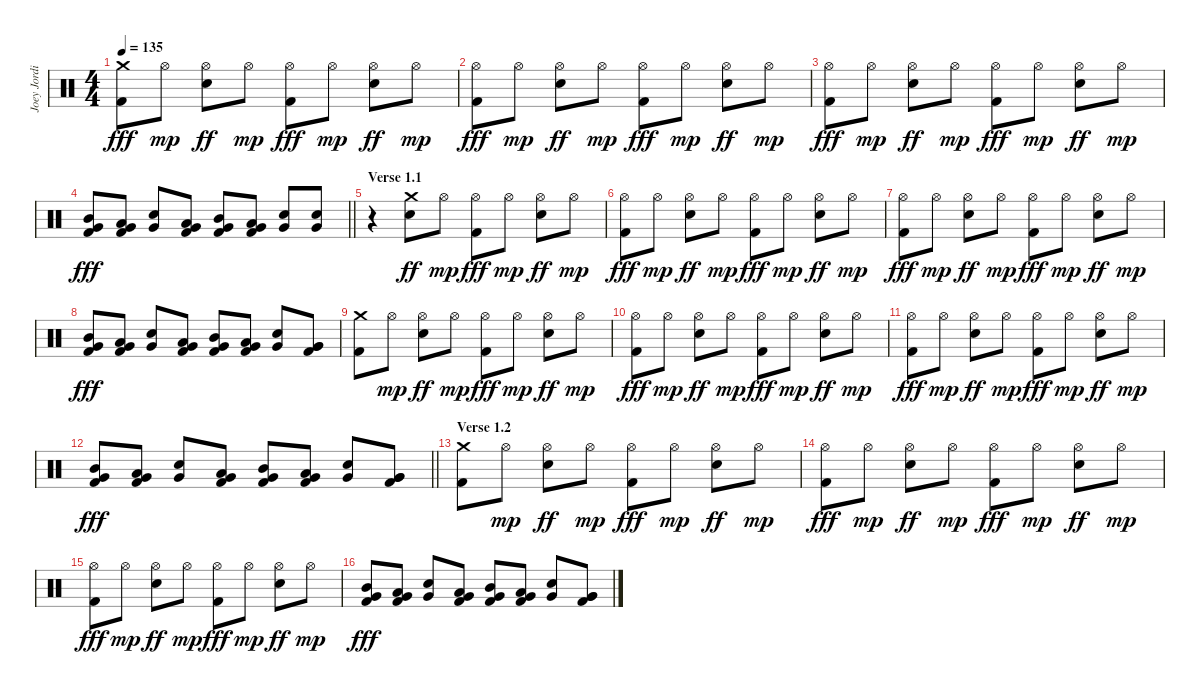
\track ("Joey Jordison" "Joey Jordi") {instrument percussion}
\staff {score}
\articulation defaults
\ts (4 4)
\tempo 135
\clef neutral
\ks c
("Crash medium (hit)" "Kick (hit) 2").8{dy fff} "Hi-Hat (open)".8{dy mp} ("Hi-Hat (open)" "Electric Snare (hit)").8{dy ff} "Hi-Hat (open)".8{dy mp} ("Hi-Hat (open)" "Kick (hit) 2").8{dy fff} "Hi-Hat (open)".8{dy mp} ("Hi-Hat (open)" "Electric Snare (hit)").8{dy ff} "Hi-Hat (open)".8{dy mp} |
("Hi-Hat (open)" "Kick (hit) 2").8{dy fff} "Hi-Hat (open)".8{dy mp} ("Hi-Hat (open)" "Electric Snare (hit)").8{dy ff} "Hi-Hat (open)".8{dy mp} ("Hi-Hat (open)" "Kick (hit) 2").8{dy fff} "Hi-Hat (open)".8{dy mp} ("Hi-Hat (open)" "Electric Snare (hit)").8{dy ff} "Hi-Hat (open)".8{dy mp} |
("Hi-Hat (open)" "Kick (hit) 2").8{dy fff} "Hi-Hat (open)".8{dy mp} ("Hi-Hat (open)" "Electric Snare (hit)").8{dy ff} "Hi-Hat (open)".8{dy mp} ("Hi-Hat (open)" "Kick (hit) 2").8{dy fff} "Hi-Hat (open)".8{dy mp} ("Hi-Hat (open)" "Electric Snare (hit)").8{dy ff} "Hi-Hat (open)".8{dy mp} |
\barLineRight lightlight
("Mid Tom (hit)" "Very Low Tom (hit)" "Kick (hit) 2").8{dy fff} ("Low Tom (hit)" "Very Low Tom (hit)" "Kick (hit) 2").8 ("Electric Snare (hit)" "Very Low Tom (hit)").8 ("Low Tom (hit)" "Very Low Tom (hit)" "Kick (hit) 2").8 ("Mid Tom (hit)" "Very Low Tom (hit)" "Kick (hit) 2").8 ("Low Tom (hit)" "Very Low Tom (hit)" "Kick (hit) 2").8 ("Electric Snare (hit)" "Very Low Tom (hit)").8 ("Electric Snare (hit)" "Very Low Tom (hit)").8 |
\section ("" "Verse 1.1")
r.4 ("Crash medium (hit)" "Electric Snare (hit)").8{dy ff} "Hi-Hat (open)".8{dy mp} ("Hi-Hat (open)" "Kick (hit) 2").8{dy fff} "Hi-Hat (open)".8{dy mp} ("Hi-Hat (open)" "Electric Snare (hit)").8{dy ff} "Hi-Hat (open)".8{dy mp} |
("Hi-Hat (open)" "Kick (hit) 2").8{dy fff} "Hi-Hat (open)".8{dy mp} ("Hi-Hat (open)" "Electric Snare (hit)").8{dy ff} "Hi-Hat (open)".8{dy mp} ("Hi-Hat (open)" "Kick (hit) 2").8{dy fff} "Hi-Hat (open)".8{dy mp} ("Hi-Hat (open)" "Electric Snare (hit)").8{dy ff} "Hi-Hat (open)".8{dy mp} |
("Hi-Hat (open)" "Kick (hit) 2").8{dy fff} "Hi-Hat (open)".8{dy mp} ("Hi-Hat (open)" "Electric Snare (hit)").8{dy ff} "Hi-Hat (open)".8{dy mp} ("Hi-Hat (open)" "Kick (hit) 2").8{dy fff} "Hi-Hat (open)".8{dy mp} ("Hi-Hat (open)" "Electric Snare (hit)").8{dy ff} "Hi-Hat (open)".8{dy mp} |
("Mid Tom (hit)" "Very Low Tom (hit)" "Kick (hit) 2").8{dy fff} ("Low Tom (hit)" "Very Low Tom (hit)" "Kick (hit) 2").8 ("Electric Snare (hit)" "Very Low Tom (hit)").8 ("Low Tom (hit)" "Very Low Tom (hit)" "Kick (hit) 2").8 ("Mid Tom (hit)" "Very Low Tom (hit)" "Kick (hit) 2").8 ("Low Tom (hit)" "Very Low Tom (hit)" "Kick (hit) 2").8 ("Electric Snare (hit)" "Very Low Tom (hit)").8 ("Very Low Tom (hit)" "Very Low Tom (hit)" "Kick (hit) 2").8 |
("Crash medium (hit)" "Kick (hit) 2").8 "Hi-Hat (open)".8{dy mp} ("Hi-Hat (open)" "Electric Snare (hit)").8{dy ff} "Hi-Hat (open)".8{dy mp} ("Hi-Hat (open)" "Kick (hit) 2").8{dy fff} "Hi-Hat (open)".8{dy mp} ("Hi-Hat (open)" "Electric Snare (hit)").8{dy ff} "Hi-Hat (open)".8{dy mp} |
("Hi-Hat (open)" "Kick (hit) 2").8{dy fff} "Hi-Hat (open)".8{dy mp} ("Hi-Hat (open)" "Electric Snare (hit)").8{dy ff} "Hi-Hat (open)".8{dy mp} ("Hi-Hat (open)" "Kick (hit) 2").8{dy fff} "Hi-Hat (open)".8{dy mp} ("Hi-Hat (open)" "Electric Snare (hit)").8{dy ff} "Hi-Hat (open)".8{dy mp} |
("Hi-Hat (open)" "Kick (hit) 2").8{dy fff} "Hi-Hat (open)".8{dy mp} ("Hi-Hat (open)" "Electric Snare (hit)").8{dy ff} "Hi-Hat (open)".8{dy mp} ("Hi-Hat (open)" "Kick (hit) 2").8{dy fff} "Hi-Hat (open)".8{dy mp} ("Hi-Hat (open)" "Electric Snare (hit)").8{dy ff} "Hi-Hat (open)".8{dy mp} |
\barLineRight lightlight
("Mid Tom (hit)" "Very Low Tom (hit)" "Kick (hit) 2").8{dy fff} ("Low Tom (hit)" "Very Low Tom (hit)" "Kick (hit) 2").8 ("Electric Snare (hit)" "Very Low Tom (hit)").8 ("Low Tom (hit)" "Very Low Tom (hit)" "Kick (hit) 2").8 ("Mid Tom (hit)" "Very Low Tom (hit)" "Kick (hit) 2").8 ("Low Tom (hit)" "Very Low Tom (hit)" "Kick (hit) 2").8 ("Electric Snare (hit)" "Very Low Tom (hit)").8 ("Very Low Tom (hit)" "Very Low Tom (hit)" "Kick (hit) 2").8 |
\section ("" "Verse 1.2")
("Crash medium (hit)" "Kick (hit) 2").8 "Hi-Hat (open)".8{dy mp} ("Hi-Hat (open)" "Electric Snare (hit)").8{dy ff} "Hi-Hat (open)".8{dy mp} ("Hi-Hat (open)" "Kick (hit) 2").8{dy fff} "Hi-Hat (open)".8{dy mp} ("Hi-Hat (open)" "Electric Snare (hit)").8{dy ff} "Hi-Hat (open)".8{dy mp} |
("Hi-Hat (open)" "Kick (hit) 2").8{dy fff} "Hi-Hat (open)".8{dy mp} ("Hi-Hat (open)" "Electric Snare (hit)").8{dy ff} "Hi-Hat (open)".8{dy mp} ("Hi-Hat (open)" "Kick (hit) 2").8{dy fff} "Hi-Hat (open)".8{dy mp} ("Hi-Hat (open)" "Electric Snare (hit)").8{dy ff} "Hi-Hat (open)".8{dy mp} |
("Hi-Hat (open)" "Kick (hit) 2").8{dy fff} "Hi-Hat (open)".8{dy mp} ("Hi-Hat (open)" "Electric Snare (hit)").8{dy ff} "Hi-Hat (open)".8{dy mp} ("Hi-Hat (open)" "Kick (hit) 2").8{dy fff} "Hi-Hat (open)".8{dy mp} ("Hi-Hat (open)" "Electric Snare (hit)").8{dy ff} "Hi-Hat (open)".8{dy mp} |
("Mid Tom (hit)" "Very Low Tom (hit)" "Kick (hit) 2").8{dy fff} ("Low Tom (hit)" "Very Low Tom (hit)" "Kick (hit) 2").8 ("Electric Snare (hit)" "Very Low Tom (hit)").8 ("Low Tom (hit)" "Very Low Tom (hit)" "Kick (hit) 2").8 ("Mid Tom (hit)" "Very Low Tom (hit)" "Kick (hit) 2").8 ("Low Tom (hit)" "Very Low Tom (hit)" "Kick (hit) 2").8 ("Electric Snare (hit)" "Very Low Tom (hit)").8 ("Very Low Tom (hit)" "Very Low Tom (hit)" "Kick (hit) 2").8
